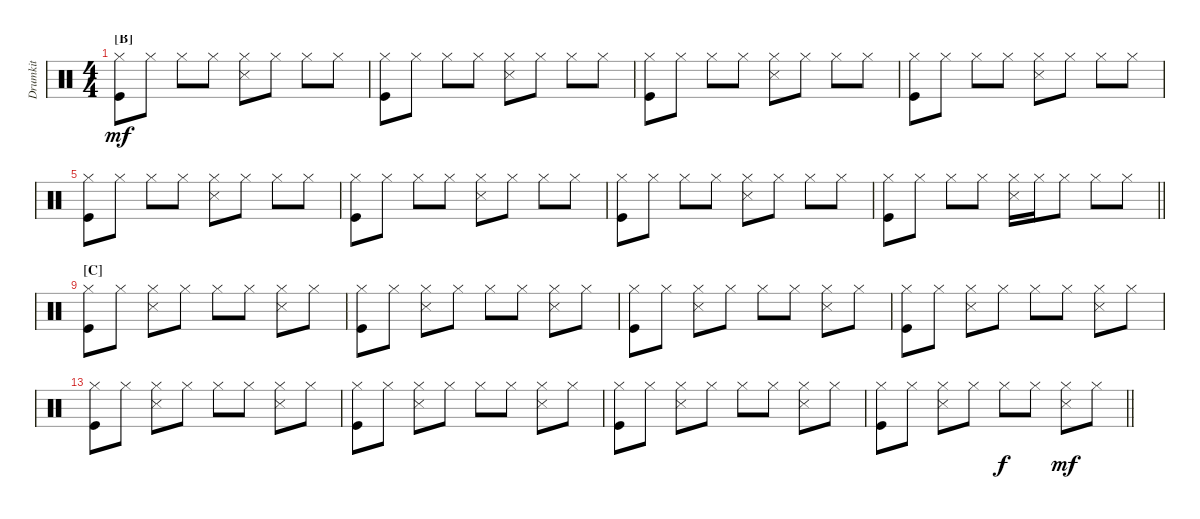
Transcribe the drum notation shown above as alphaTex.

\bracketExtendMode groupsimilarinstruments
\multiTrackTrackNamePolicy hidden
\firstSystemTrackNameMode fullname
\otherSystemsTrackNameMode fullname
\otherSystemsTrackNameOrientation horizontal
\defaultBarNumberDisplay FirstOfSystem
\track ("Drumkit" "Drums") {multiBarRest instrument percussion}
\staff {score}
\articulation defaults
\ts (4 4)
\section ("B" "")
\tempo (150 hide)
\clef neutral
\ks c
("Hi-Hat (closed)" "Kick (hit)").8{dy mf} "Hi-Hat (closed)".8 "Hi-Hat (closed)".8 "Hi-Hat (closed)".8 ("Hi-Hat (closed)" "Snare (side stick) 3").8 "Hi-Hat (closed)".8 "Hi-Hat (closed)".8 "Hi-Hat (closed)".8 |
("Hi-Hat (closed)" "Kick (hit)").8 "Hi-Hat (closed)".8 "Hi-Hat (closed)".8 "Hi-Hat (closed)".8 ("Hi-Hat (closed)" "Snare (side stick) 3").8 "Hi-Hat (closed)".8 "Hi-Hat (closed)".8 "Hi-Hat (closed)".8 |
("Hi-Hat (closed)" "Kick (hit)").8 "Hi-Hat (closed)".8 "Hi-Hat (closed)".8 "Hi-Hat (closed)".8 ("Hi-Hat (closed)" "Snare (side stick) 3").8 "Hi-Hat (closed)".8 "Hi-Hat (closed)".8 "Hi-Hat (closed)".8 |
("Hi-Hat (closed)" "Kick (hit)").8 "Hi-Hat (closed)".8 "Hi-Hat (closed)".8 "Hi-Hat (closed)".8 ("Hi-Hat (closed)" "Snare (side stick) 3").8 "Hi-Hat (closed)".8 "Hi-Hat (closed)".8 "Hi-Hat (closed)".8 |
("Hi-Hat (closed)" "Kick (hit)").8 "Hi-Hat (closed)".8 "Hi-Hat (closed)".8 "Hi-Hat (closed)".8 ("Hi-Hat (closed)" "Snare (side stick) 3").8 "Hi-Hat (closed)".8 "Hi-Hat (closed)".8 "Hi-Hat (closed)".8 |
("Hi-Hat (closed)" "Kick (hit)").8 "Hi-Hat (closed)".8 "Hi-Hat (closed)".8 "Hi-Hat (closed)".8 ("Hi-Hat (closed)" "Snare (side stick) 3").8 "Hi-Hat (closed)".8 "Hi-Hat (closed)".8 "Hi-Hat (closed)".8 |
("Hi-Hat (closed)" "Kick (hit)").8 "Hi-Hat (closed)".8 "Hi-Hat (closed)".8 "Hi-Hat (closed)".8 ("Hi-Hat (closed)" "Snare (side stick) 3").8 "Hi-Hat (closed)".8 "Hi-Hat (closed)".8 "Hi-Hat (closed)".8 |
\barLineRight lightlight
("Hi-Hat (closed)" "Kick (hit)").8 "Hi-Hat (closed)".8 "Hi-Hat (closed)".8 "Hi-Hat (closed)".8 ("Hi-Hat (closed)" "Snare (side stick) 3").16 "Hi-Hat (closed)".16 "Hi-Hat (closed)".8 "Hi-Hat (closed)".8 "Hi-Hat (closed)".8 |
\section ("C" "")
("Hi-Hat (closed)" "Kick (hit)").8 "Hi-Hat (closed)".8 ("Hi-Hat (closed)" "Snare (side stick) 3").8 "Hi-Hat (closed)".8 "Hi-Hat (closed)".8 "Hi-Hat (closed)".8 ("Hi-Hat (closed)" "Snare (side stick) 3").8 "Hi-Hat (closed)".8 |
("Hi-Hat (closed)" "Kick (hit)").8 "Hi-Hat (closed)".8 ("Hi-Hat (closed)" "Snare (side stick) 3").8 "Hi-Hat (closed)".8 "Hi-Hat (closed)".8 "Hi-Hat (closed)".8 ("Hi-Hat (closed)" "Snare (side stick) 3").8 "Hi-Hat (closed)".8 |
("Hi-Hat (closed)" "Kick (hit)").8 "Hi-Hat (closed)".8 ("Hi-Hat (closed)" "Snare (side stick) 3").8 "Hi-Hat (closed)".8 "Hi-Hat (closed)".8 "Hi-Hat (closed)".8 ("Hi-Hat (closed)" "Snare (side stick) 3").8 "Hi-Hat (closed)".8 |
("Hi-Hat (closed)" "Kick (hit)").8 "Hi-Hat (closed)".8 ("Hi-Hat (closed)" "Snare (side stick) 3").8 "Hi-Hat (closed)".8 "Hi-Hat (closed)".8 "Hi-Hat (closed)".8 ("Hi-Hat (closed)" "Snare (side stick) 3").8 "Hi-Hat (closed)".8 |
("Hi-Hat (closed)" "Kick (hit)").8 "Hi-Hat (closed)".8 ("Hi-Hat (closed)" "Snare (side stick) 3").8 "Hi-Hat (closed)".8 "Hi-Hat (closed)".8 "Hi-Hat (closed)".8 ("Hi-Hat (closed)" "Snare (side stick) 3").8 "Hi-Hat (closed)".8 |
("Hi-Hat (closed)" "Kick (hit)").8 "Hi-Hat (closed)".8 ("Hi-Hat (closed)" "Snare (side stick) 3").8 "Hi-Hat (closed)".8 "Hi-Hat (closed)".8 "Hi-Hat (closed)".8 ("Hi-Hat (closed)" "Snare (side stick) 3").8 "Hi-Hat (closed)".8 |
("Hi-Hat (closed)" "Kick (hit)").8 "Hi-Hat (closed)".8 ("Hi-Hat (closed)" "Snare (side stick) 3").8 "Hi-Hat (closed)".8 "Hi-Hat (closed)".8 "Hi-Hat (closed)".8 ("Hi-Hat (closed)" "Snare (side stick) 3").8 "Hi-Hat (closed)".8 |
\barLineRight lightlight
("Hi-Hat (closed)" "Kick (hit)").8 "Hi-Hat (closed)".8 ("Hi-Hat (closed)" "Snare (side stick) 3").8 "Hi-Hat (closed)".8 "Hi-Hat (closed)".8{dy f} "Hi-Hat (closed)".8 ("Hi-Hat (closed)" "Snare (side stick) 3").8{dy mf} "Hi-Hat (closed)".8
